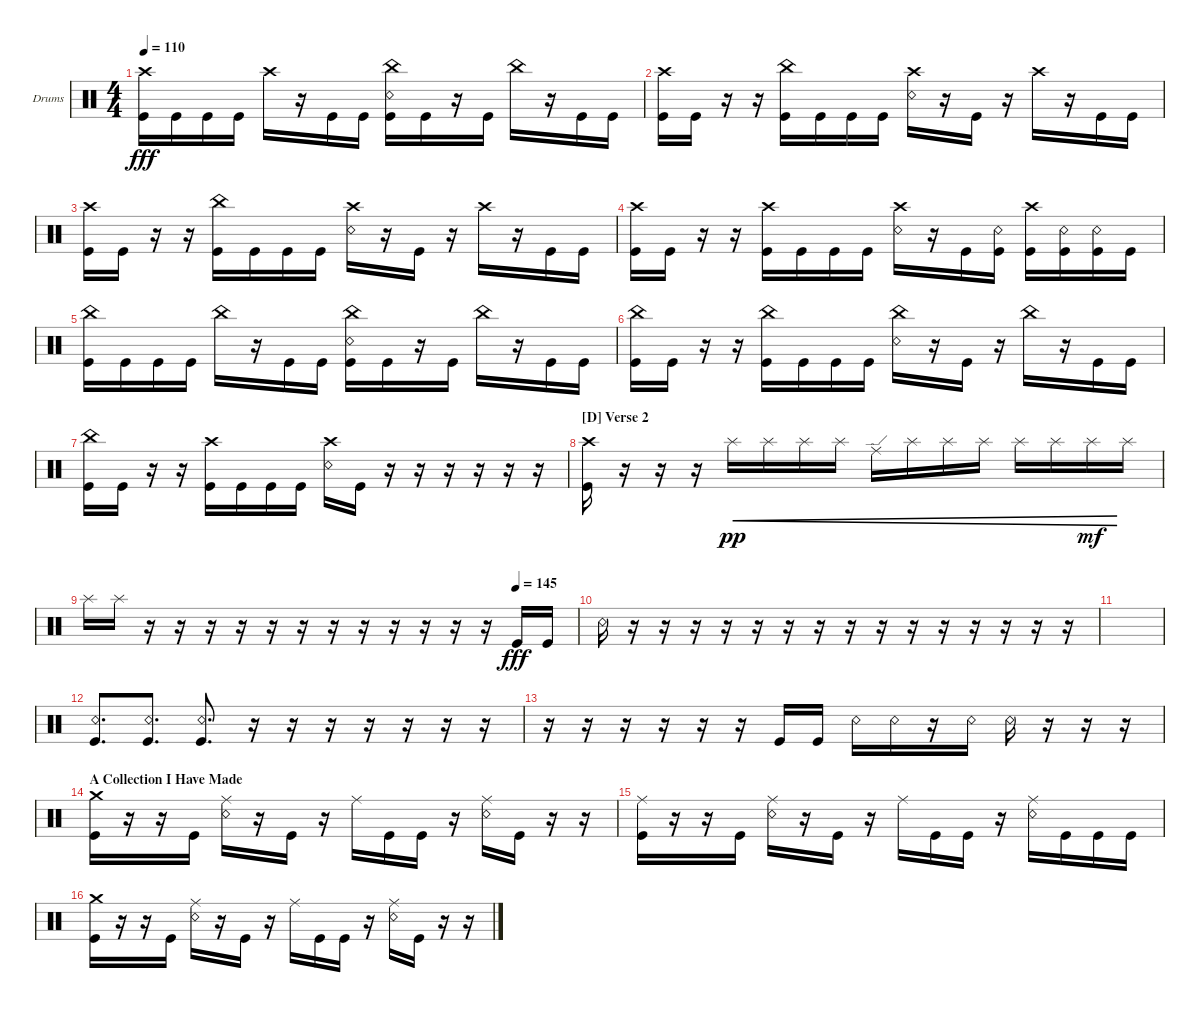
\defaultSystemsLayout 4
\bracketExtendMode groupsimilarinstruments
\firstSystemTrackNameOrientation horizontal
\otherSystemsTrackNameOrientation horizontal
\track ("Chris Khoury" "Drums") {instrument percussion}
\staff {score}
\articulation defaults
\ts (4 4)
\tempo 110
\clef neutral
\scale
0.333333
\ks c
("Kick (hit)" "Crash high (hit)").16{dy fff} "Kick (hit)".16 "Kick (hit)".16 "Kick (hit)".16 "Crash high (hit)".16 r.16 "Kick (hit)".16 "Kick (hit)".16 ("Kick (hit)" "Snare (rim shot)" "China (hit)").16 "Kick (hit)".16 r.16 "Kick (hit)".16 "China (hit)".16 r.16 "Kick (hit)".16 "Kick (hit)".16 |
\scale
0.333333 ("Kick (hit)" "Crash high (hit)").16 "Kick (hit)".16 r.16 r.16 ("Kick (hit)" "China (hit)").16 "Kick (hit)".16 "Kick (hit)".16 "Kick (hit)".16 ("Snare (rim shot)" "Crash high (hit)").16 r.16 "Kick (hit)".16 r.16 "Crash high (hit)".16 r.16 "Kick (hit)".16 "Kick (hit)".16 |
\scale
0.333333 ("Kick (hit)" "Crash high (hit)").16 "Kick (hit)".16 r.16 r.16 ("Kick (hit)" "China (hit)").16 "Kick (hit)".16 "Kick (hit)".16 "Kick (hit)".16 ("Snare (rim shot)" "Crash high (hit)").16 r.16 "Kick (hit)".16 r.16 "Crash high (hit)".16 r.16 "Kick (hit)".16 "Kick (hit)".16 |
\scale
0.333333 ("Kick (hit)" "Crash high (hit)").16 "Kick (hit)".16 r.16 r.16 ("Kick (hit)" "Crash high (hit)").16 "Kick (hit)".16 "Kick (hit)".16 "Kick (hit)".16 ("Snare (rim shot)" "Crash high (hit)").16 r.16 "Kick (hit)".16 ("Snare (rim shot)" "Kick (hit)").16 ("Kick (hit)" "Crash high (hit)").16 ("Snare (rim shot)" "Kick (hit)").16 ("Snare (rim shot)" "Kick (hit)").16 "Kick (hit)".16 |
\scale
0.333333 ("Kick (hit)" "China (hit)").16 "Kick (hit)".16 "Kick (hit)".16 "Kick (hit)".16 "China (hit)".16 r.16 "Kick (hit)".16 "Kick (hit)".16 ("Kick (hit)" "Snare (rim shot)" "China (hit)").16 "Kick (hit)".16 r.16 "Kick (hit)".16 "China (hit)".16 r.16 "Kick (hit)".16 "Kick (hit)".16 |
\scale
0.333333 ("Kick (hit)" "China (hit)").16 "Kick (hit)".16 r.16 r.16 ("Kick (hit)" "China (hit)").16 "Kick (hit)".16 "Kick (hit)".16 "Kick (hit)".16 ("Snare (rim shot)" "China (hit)").16 r.16 "Kick (hit)".16 r.16 "China (hit)".16 r.16 "Kick (hit)".16 "Kick (hit)".16 |
\scale
0.333333 ("Kick (hit)" "China (hit)").16 "Kick (hit)".16 r.16 r.16 ("Kick (hit)" "Crash high (hit)").16 "Kick (hit)".16 "Kick (hit)".16 "Kick (hit)".16 ("Snare (rim shot)" "Crash high (hit)").16 "Kick (hit)".16 r.16 r.16 r.16 r.16 r.16 r.16 |
\section ("D" "Verse 2")
\scale
0.333333 ("Crash high (hit)" "Kick (hit)").16 r.16 r.16 r.16 "Splash (hit)".16{cre dy pp} "Splash (hit)".16{cre} "Splash (hit)".16{cre} "Splash (hit)".16{cre} "Ride (edge)".16{cre} "Splash (hit)".16{cre} "Splash (hit)".16{cre} "Splash (hit)".16{cre} "Splash (hit)".16{cre} "Splash (hit)".16{cre} "Splash (hit)".16{cre dy mf} "Splash (hit)".16 |
\tempo (145 0.875)
\scale
0.333333 "Splash (hit)".16 "Splash (hit)".16 r.16 r.16 r.16 r.16 r.16 r.16 r.16 r.16 r.16 r.16 r.16 r.16 "Kick (hit)".16{dy fff} "Kick (hit)".16 |
\scale
0.333333 "Snare (rim shot)".16 r.16 r.16 r.16 r.16 r.16 r.16 r.16 r.16 r.16 r.16 r.16 r.16 r.16 r.16 r.16 |
\scale
0.333333 |
\scale
0.333333 ("Snare (rim shot)" "Kick (hit)").8{d} ("Snare (rim shot)" "Kick (hit)").8{d} ("Snare (rim shot)" "Kick (hit)").8{d} r.16 r.16 r.16 r.16 r.16 r.16 r.16 |
\scale
0.333333 r.16 r.16 r.16 r.16 r.16 r.16 "Kick (hit)".16 "Kick (hit)".16 "Snare (rim shot)".16 "Snare (rim shot)".16 r.16 "Snare (rim shot)".16 "Snare (rim shot)".16 r.16 r.16 r.16 |
\section ("" "A Collection I Have Made")
\scale
0.333333 ("Crash medium (hit)" "Kick (hit)").16 r.16 r.16 "Kick (hit)".16 ("Ride (middle)" "Snare (rim shot)").16 r.16 "Kick (hit)".16 r.16 "Ride (middle)".16 "Kick (hit)".16 "Kick (hit)".16 r.16 ("Ride (middle)" "Snare (rim shot)").16 "Kick (hit)".16 r.16 r.16 |
\scale
0.333333 ("Ride (middle)" "Kick (hit)").16 r.16 r.16 "Kick (hit)".16 ("Ride (middle)" "Snare (rim shot)").16 r.16 "Kick (hit)".16 r.16 "Ride (middle)".16 "Kick (hit)".16 "Kick (hit)".16 r.16 ("Ride (middle)" "Snare (rim shot)").16 "Kick (hit)".16 "Kick (hit)".16 "Kick (hit)".16 |
\scale
0.333333 ("Kick (hit)" "Crash medium (hit)").16 r.16 r.16 "Kick (hit)".16 ("Ride (middle)" "Snare (rim shot)").16 r.16 "Kick (hit)".16 r.16 "Ride (middle)".16 "Kick (hit)".16 "Kick (hit)".16 r.16 ("Ride (middle)" "Snare (rim shot)").16 "Kick (hit)".16 r.16 r.16
